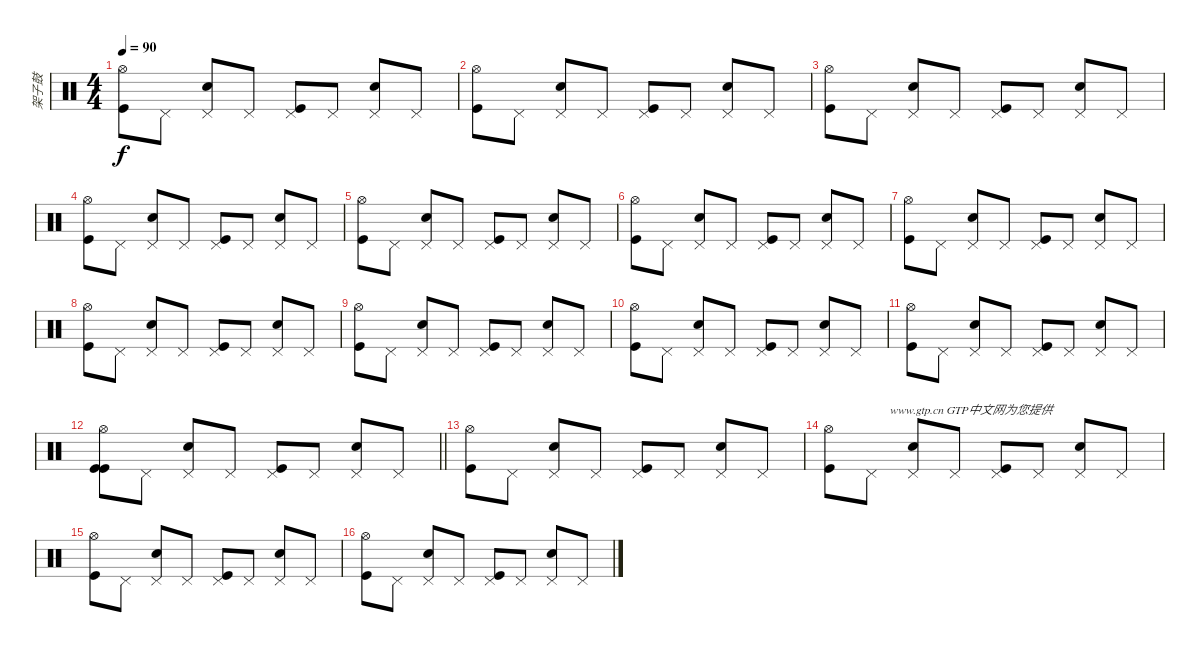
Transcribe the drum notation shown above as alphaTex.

\track ("架子鼓" "架子鼓") {instrument percussion}
\staff {score}
\articulation defaults
\ts (4 4)
\tempo 90
\clef neutral
\ks c
("Hi-Hat (open)" "Kick (hit)").8{dy f} "Pedal Hi-Hat (hit)".8 ("Snare (hit) 2" "Pedal Hi-Hat (hit)").8 "Pedal Hi-Hat (hit)".8 ("Pedal Hi-Hat (hit)" "Kick (hit)").8 "Pedal Hi-Hat (hit)".8 ("Snare (hit) 2" "Pedal Hi-Hat (hit)").8 "Pedal Hi-Hat (hit)".8 |
("Hi-Hat (open)" "Kick (hit)").8 "Pedal Hi-Hat (hit)".8 ("Snare (hit) 2" "Pedal Hi-Hat (hit)").8 "Pedal Hi-Hat (hit)".8 ("Pedal Hi-Hat (hit)" "Kick (hit)").8 "Pedal Hi-Hat (hit)".8 ("Snare (hit) 2" "Pedal Hi-Hat (hit)").8 "Pedal Hi-Hat (hit)".8 |
("Hi-Hat (open)" "Kick (hit)").8 "Pedal Hi-Hat (hit)".8 ("Snare (hit) 2" "Pedal Hi-Hat (hit)").8 "Pedal Hi-Hat (hit)".8 ("Pedal Hi-Hat (hit)" "Kick (hit)").8 "Pedal Hi-Hat (hit)".8 ("Snare (hit) 2" "Pedal Hi-Hat (hit)").8 "Pedal Hi-Hat (hit)".8 |
("Hi-Hat (open)" "Kick (hit)").8 "Pedal Hi-Hat (hit)".8 ("Snare (hit) 2" "Pedal Hi-Hat (hit)").8 "Pedal Hi-Hat (hit)".8 ("Pedal Hi-Hat (hit)" "Kick (hit)").8 "Pedal Hi-Hat (hit)".8 ("Snare (hit) 2" "Pedal Hi-Hat (hit)").8 "Pedal Hi-Hat (hit)".8 |
("Hi-Hat (open)" "Kick (hit)").8 "Pedal Hi-Hat (hit)".8 ("Snare (hit) 2" "Pedal Hi-Hat (hit)").8 "Pedal Hi-Hat (hit)".8 ("Pedal Hi-Hat (hit)" "Kick (hit)").8 "Pedal Hi-Hat (hit)".8 ("Snare (hit) 2" "Pedal Hi-Hat (hit)").8 "Pedal Hi-Hat (hit)".8 |
("Hi-Hat (open)" "Kick (hit)").8 "Pedal Hi-Hat (hit)".8 ("Snare (hit) 2" "Pedal Hi-Hat (hit)").8 "Pedal Hi-Hat (hit)".8 ("Pedal Hi-Hat (hit)" "Kick (hit)").8 "Pedal Hi-Hat (hit)".8 ("Snare (hit) 2" "Pedal Hi-Hat (hit)").8 "Pedal Hi-Hat (hit)".8 |
("Hi-Hat (open)" "Kick (hit)").8 "Pedal Hi-Hat (hit)".8 ("Snare (hit) 2" "Pedal Hi-Hat (hit)").8 "Pedal Hi-Hat (hit)".8 ("Pedal Hi-Hat (hit)" "Kick (hit)").8 "Pedal Hi-Hat (hit)".8 ("Snare (hit) 2" "Pedal Hi-Hat (hit)").8 "Pedal Hi-Hat (hit)".8 |
("Hi-Hat (open)" "Kick (hit)").8 "Pedal Hi-Hat (hit)".8 ("Snare (hit) 2" "Pedal Hi-Hat (hit)").8 "Pedal Hi-Hat (hit)".8 ("Pedal Hi-Hat (hit)" "Kick (hit)").8 "Pedal Hi-Hat (hit)".8 ("Snare (hit) 2" "Pedal Hi-Hat (hit)").8 "Pedal Hi-Hat (hit)".8 |
("Hi-Hat (open)" "Kick (hit)").8 "Pedal Hi-Hat (hit)".8 ("Snare (hit) 2" "Pedal Hi-Hat (hit)").8 "Pedal Hi-Hat (hit)".8 ("Pedal Hi-Hat (hit)" "Kick (hit)").8 "Pedal Hi-Hat (hit)".8 ("Snare (hit) 2" "Pedal Hi-Hat (hit)").8 "Pedal Hi-Hat (hit)".8 |
("Hi-Hat (open)" "Kick (hit)").8 "Pedal Hi-Hat (hit)".8 ("Snare (hit) 2" "Pedal Hi-Hat (hit)").8 "Pedal Hi-Hat (hit)".8 ("Pedal Hi-Hat (hit)" "Kick (hit)").8 "Pedal Hi-Hat (hit)".8 ("Snare (hit) 2" "Pedal Hi-Hat (hit)").8 "Pedal Hi-Hat (hit)".8 |
("Hi-Hat (open)" "Kick (hit)").8 "Pedal Hi-Hat (hit)".8 ("Snare (hit) 2" "Pedal Hi-Hat (hit)").8 "Pedal Hi-Hat (hit)".8 ("Pedal Hi-Hat (hit)" "Kick (hit)").8 "Pedal Hi-Hat (hit)".8 ("Snare (hit) 2" "Pedal Hi-Hat (hit)").8 "Pedal Hi-Hat (hit)".8 |
\barLineRight lightlight
("Hi-Hat (open)" "Kick (hit)" "Kick (hit)").8 "Pedal Hi-Hat (hit)".8 ("Snare (hit) 2" "Pedal Hi-Hat (hit)").8 "Pedal Hi-Hat (hit)".8 ("Pedal Hi-Hat (hit)" "Kick (hit)").8 "Pedal Hi-Hat (hit)".8 ("Snare (hit) 2" "Pedal Hi-Hat (hit)").8 "Pedal Hi-Hat (hit)".8 |
("Hi-Hat (open)" "Kick (hit)").8 "Pedal Hi-Hat (hit)".8 ("Snare (hit) 2" "Pedal Hi-Hat (hit)").8 "Pedal Hi-Hat (hit)".8 ("Pedal Hi-Hat (hit)" "Kick (hit)").8 "Pedal Hi-Hat (hit)".8 ("Snare (hit) 2" "Pedal Hi-Hat (hit)").8 "Pedal Hi-Hat (hit)".8 |
("Hi-Hat (open)" "Kick (hit)").8{txt "                    www.gtp.cn GTP中文网为您提供"} "Pedal Hi-Hat (hit)".8 ("Snare (hit) 2" "Pedal Hi-Hat (hit)").8 "Pedal Hi-Hat (hit)".8 ("Pedal Hi-Hat (hit)" "Kick (hit)").8 "Pedal Hi-Hat (hit)".8 ("Snare (hit) 2" "Pedal Hi-Hat (hit)").8 "Pedal Hi-Hat (hit)".8 |
("Hi-Hat (open)" "Kick (hit)").8 "Pedal Hi-Hat (hit)".8 ("Snare (hit) 2" "Pedal Hi-Hat (hit)").8 "Pedal Hi-Hat (hit)".8 ("Pedal Hi-Hat (hit)" "Kick (hit)").8 "Pedal Hi-Hat (hit)".8 ("Snare (hit) 2" "Pedal Hi-Hat (hit)").8 "Pedal Hi-Hat (hit)".8 |
("Hi-Hat (open)" "Kick (hit)").8 "Pedal Hi-Hat (hit)".8 ("Snare (hit) 2" "Pedal Hi-Hat (hit)").8 "Pedal Hi-Hat (hit)".8 ("Pedal Hi-Hat (hit)" "Kick (hit)").8 "Pedal Hi-Hat (hit)".8 ("Snare (hit) 2" "Pedal Hi-Hat (hit)").8 "Pedal Hi-Hat (hit)".8
